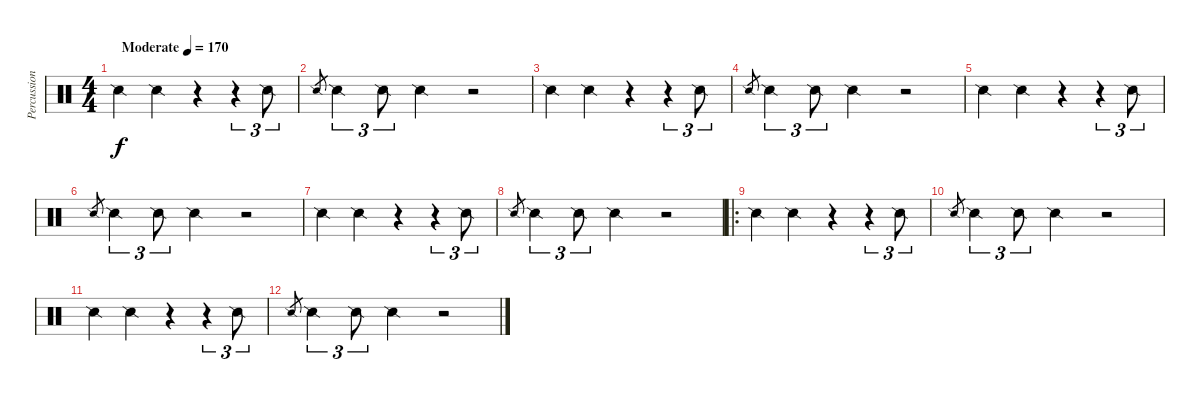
\track ("Percussion" "Percussion") {instrument percussion}
\staff {score}
\articulation defaults
\ts (4 4)
\tempo (170 "Moderate")
\clef neutral
\ks c "Snare (side stick) 2".4{dy f} "Snare (side stick) 2".4
r.4 r.4{tu (3 2)} "Snare (side stick) 2".8{tu (3 2)} |
"Snare (side stick) 2".8{gr} "Snare (side stick) 2".4{tu (3 2)} "Snare (side stick) 2".8{tu (3 2)} "Snare (side stick) 2".4 r.2 |
"Snare (side stick) 2".4 "Snare (side stick) 2".4 r.4 r.4{tu (3 2)} "Snare (side stick) 2".8{tu (3 2)} |
"Snare (side stick) 2".8{gr} "Snare (side stick) 2".4{tu (3 2)} "Snare (side stick) 2".8{tu (3 2)} "Snare (side stick) 2".4 r.2 |
"Snare (side stick) 2".4 "Snare (side stick) 2".4 r.4 r.4{tu (3 2)} "Snare (side stick) 2".8{tu (3 2)} |
"Snare (side stick) 2".8{gr} "Snare (side stick) 2".4{tu (3 2)} "Snare (side stick) 2".8{tu (3 2)} "Snare (side stick) 2".4 r.2 |
"Snare (side stick) 2".4 "Snare (side stick) 2".4 r.4 r.4{tu (3 2)} "Snare (side stick) 2".8{tu (3 2)} |
"Snare (side stick) 2".8{gr} "Snare (side stick) 2".4{tu (3 2)} "Snare (side stick) 2".8{tu (3 2)} "Snare (side stick) 2".4 r.2 |
\ro "Snare (side stick) 2".4 "Snare (side stick) 2".4
r.4 r.4{tu (3 2)} "Snare (side stick) 2".8{tu (3 2)} |
"Snare (side stick) 2".8{gr} "Snare (side stick) 2".4{tu (3 2)} "Snare (side stick) 2".8{tu (3 2)} "Snare (side stick) 2".4 r.2 |
"Snare (side stick) 2".4 "Snare (side stick) 2".4 r.4 r.4{tu (3 2)} "Snare (side stick) 2".8{tu (3 2)} |
"Snare (side stick) 2".8{gr} "Snare (side stick) 2".4{tu (3 2)} "Snare (side stick) 2".8{tu (3 2)} "Snare (side stick) 2".4 r.2
